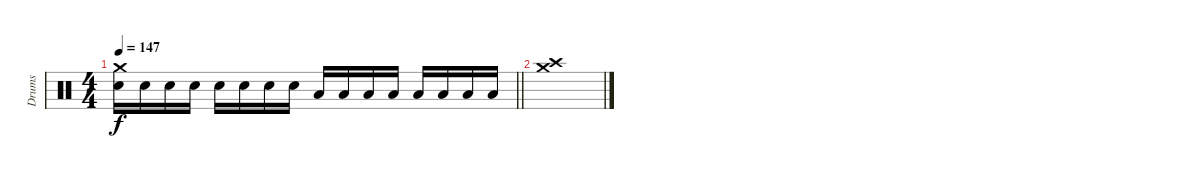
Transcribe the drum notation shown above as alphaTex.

\track ("Drums" "Drums") {instrument percussion}
\staff {score}
\articulation defaults
\ts (4 4)
\tempo 147
\clef neutral
\barLineRight lightlight
\ks c
("Crash medium (hit)" "Snare (hit) 2").16{dy f} "Snare (hit) 2".16 "Snare (hit) 2".16 "Snare (hit) 2".16 "Snare (hit) 2".16 "Snare (hit) 2".16 "Snare (hit) 2".16 "Snare (hit) 2".16 "Low Floor Tom (hit)".16 "Low Floor Tom (hit)".16 "Low Floor Tom (hit)".16 "Low Floor Tom (hit)".16 "Low Tom (hit)".16 "Low Tom (hit)".16 "Low Tom (hit)".16 "Low Tom (hit)".16 |
("Crash medium (hit)" "Crash high (hit)").1
